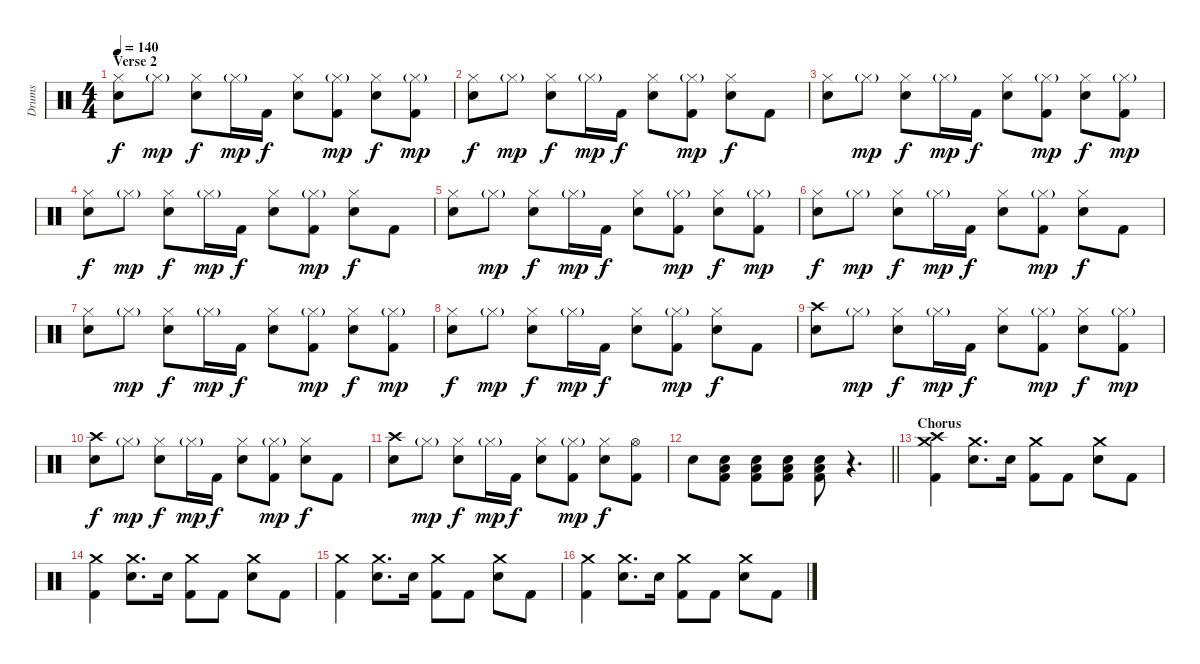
\track ("Drums" "Drums") {instrument percussion}
\staff {score}
\articulation defaults
\ts (4 4)
\section ("" "Verse 2")
\tempo 140
\clef neutral
\ks c
("Hi-Hat (closed)" "Electric Snare (hit)").8{dy f} "Hi-Hat (closed)"{g}.8{dy mp} ("Hi-Hat (closed)" "Electric Snare (hit)").8{dy f} "Hi-Hat (closed)"{g}.16{dy mp} "Kick (hit) 2".16{dy f} ("Hi-Hat (closed)" "Electric Snare (hit)").8 ("Hi-Hat (closed)"{g} "Kick (hit) 2").8{dy mp} ("Hi-Hat (closed)" "Electric Snare (hit)").8{dy f} ("Hi-Hat (closed)"{g} "Kick (hit) 2").8{dy mp} |
("Hi-Hat (closed)" "Electric Snare (hit)").8{dy f} "Hi-Hat (closed)"{g}.8{dy mp} ("Hi-Hat (closed)" "Electric Snare (hit)").8{dy f} "Hi-Hat (closed)"{g}.16{dy mp} "Kick (hit) 2".16{dy f} ("Hi-Hat (closed)" "Electric Snare (hit)").8 ("Hi-Hat (closed)"{g} "Kick (hit) 2").8{dy mp} ("Hi-Hat (closed)" "Electric Snare (hit)").8{dy f} "Kick (hit) 2".8 |
("Hi-Hat (closed)" "Electric Snare (hit)").8 "Hi-Hat (closed)"{g}.8{dy mp} ("Hi-Hat (closed)" "Electric Snare (hit)").8{dy f} "Hi-Hat (closed)"{g}.16{dy mp} "Kick (hit) 2".16{dy f} ("Hi-Hat (closed)" "Electric Snare (hit)").8 ("Hi-Hat (closed)"{g} "Kick (hit) 2").8{dy mp} ("Hi-Hat (closed)" "Electric Snare (hit)").8{dy f} ("Hi-Hat (closed)"{g} "Kick (hit) 2").8{dy mp} |
("Hi-Hat (closed)" "Electric Snare (hit)").8{dy f} "Hi-Hat (closed)"{g}.8{dy mp} ("Hi-Hat (closed)" "Electric Snare (hit)").8{dy f} "Hi-Hat (closed)"{g}.16{dy mp} "Kick (hit) 2".16{dy f} ("Hi-Hat (closed)" "Electric Snare (hit)").8 ("Hi-Hat (closed)"{g} "Kick (hit) 2").8{dy mp} ("Hi-Hat (closed)" "Electric Snare (hit)").8{dy f} "Kick (hit) 2".8 |
("Hi-Hat (closed)" "Electric Snare (hit)").8 "Hi-Hat (closed)"{g}.8{dy mp} ("Hi-Hat (closed)" "Electric Snare (hit)").8{dy f} "Hi-Hat (closed)"{g}.16{dy mp} "Kick (hit) 2".16{dy f} ("Hi-Hat (closed)" "Electric Snare (hit)").8 ("Hi-Hat (closed)"{g} "Kick (hit) 2").8{dy mp} ("Hi-Hat (closed)" "Electric Snare (hit)").8{dy f} ("Hi-Hat (closed)"{g} "Kick (hit) 2").8{dy mp} |
("Hi-Hat (closed)" "Electric Snare (hit)").8{dy f} "Hi-Hat (closed)"{g}.8{dy mp} ("Hi-Hat (closed)" "Electric Snare (hit)").8{dy f} "Hi-Hat (closed)"{g}.16{dy mp} "Kick (hit) 2".16{dy f} ("Hi-Hat (closed)" "Electric Snare (hit)").8 ("Hi-Hat (closed)"{g} "Kick (hit) 2").8{dy mp} ("Hi-Hat (closed)" "Electric Snare (hit)").8{dy f} "Kick (hit) 2".8 |
("Hi-Hat (closed)" "Electric Snare (hit)").8 "Hi-Hat (closed)"{g}.8{dy mp} ("Hi-Hat (closed)" "Electric Snare (hit)").8{dy f} "Hi-Hat (closed)"{g}.16{dy mp} "Kick (hit) 2".16{dy f} ("Hi-Hat (closed)" "Electric Snare (hit)").8 ("Hi-Hat (closed)"{g} "Kick (hit) 2").8{dy mp} ("Hi-Hat (closed)" "Electric Snare (hit)").8{dy f} ("Hi-Hat (closed)"{g} "Kick (hit) 2").8{dy mp} |
("Hi-Hat (closed)" "Electric Snare (hit)").8{dy f} "Hi-Hat (closed)"{g}.8{dy mp} ("Hi-Hat (closed)" "Electric Snare (hit)").8{dy f} "Hi-Hat (closed)"{g}.16{dy mp} "Kick (hit) 2".16{dy f} ("Hi-Hat (closed)" "Electric Snare (hit)").8 ("Hi-Hat (closed)"{g} "Kick (hit) 2").8{dy mp} ("Hi-Hat (closed)" "Electric Snare (hit)").8{dy f} "Kick (hit) 2".8 |
("Crash high (hit)" "Electric Snare (hit)").8 "Hi-Hat (closed)"{g}.8{dy mp} ("Hi-Hat (closed)" "Electric Snare (hit)").8{dy f} "Hi-Hat (closed)"{g}.16{dy mp} "Kick (hit) 2".16{dy f} ("Hi-Hat (closed)" "Electric Snare (hit)").8 ("Hi-Hat (closed)"{g} "Kick (hit) 2").8{dy mp} ("Hi-Hat (closed)" "Electric Snare (hit)").8{dy f} ("Hi-Hat (closed)"{g} "Kick (hit) 2").8{dy mp} |
("Crash high (hit)" "Electric Snare (hit)").8{dy f} "Hi-Hat (closed)"{g}.8{dy mp} ("Hi-Hat (closed)" "Electric Snare (hit)").8{dy f} "Hi-Hat (closed)"{g}.16{dy mp} "Kick (hit) 2".16{dy f} ("Hi-Hat (closed)" "Electric Snare (hit)").8 ("Hi-Hat (closed)"{g} "Kick (hit) 2").8{dy mp} ("Hi-Hat (closed)" "Electric Snare (hit)").8{dy f} "Kick (hit) 2".8 |
("Crash high (hit)" "Electric Snare (hit)").8 "Hi-Hat (closed)"{g}.8{dy mp} ("Hi-Hat (closed)" "Electric Snare (hit)").8{dy f} "Hi-Hat (closed)"{g}.16{dy mp} "Kick (hit) 2".16{dy f} ("Hi-Hat (closed)" "Electric Snare (hit)").8 ("Hi-Hat (closed)"{g} "Kick (hit) 2").8{dy mp} ("Hi-Hat (closed)" "Electric Snare (hit)").8{dy f} ("Hi-Hat (open)" "Kick (hit) 2").8 |
\barLineRight lightlight "Electric Snare (hit)".8
("Electric Snare (hit)" "Low Floor Tom (hit)" "Kick (hit) 2").8 ("Electric Snare (hit)" "Low Floor Tom (hit)" "Kick (hit) 2").8 ("Electric Snare (hit)" "Low Floor Tom (hit)" "Kick (hit) 2").8 ("Electric Snare (hit)" "Low Floor Tom (hit)" "Kick (hit) 2").8 r.4{d} |
\section ("" "Chorus")
("Crash high (hit)" "Crash medium (hit)" "Kick (hit) 2").4 ("Crash medium (hit)" "Electric Snare (hit)").8{d} "Electric Snare (hit)".16 ("Crash medium (hit)" "Kick (hit) 2").8 "Kick (hit) 2".8 ("Crash medium (hit)" "Electric Snare (hit)").8 "Kick (hit) 2".8 |
("Crash medium (hit)" "Kick (hit) 2").4 ("Crash medium (hit)" "Electric Snare (hit)").8{d} "Electric Snare (hit)".16 ("Crash medium (hit)" "Kick (hit) 2").8 "Kick (hit) 2".8 ("Crash medium (hit)" "Electric Snare (hit)").8 "Kick (hit) 2".8 |
("Crash medium (hit)" "Kick (hit) 2").4 ("Crash medium (hit)" "Electric Snare (hit)").8{d} "Electric Snare (hit)".16 ("Crash medium (hit)" "Kick (hit) 2").8 "Kick (hit) 2".8 ("Crash medium (hit)" "Electric Snare (hit)").8 "Kick (hit) 2".8 |
("Crash medium (hit)" "Kick (hit) 2").4 ("Crash medium (hit)" "Electric Snare (hit)").8{d} "Electric Snare (hit)".16 ("Crash medium (hit)" "Kick (hit) 2").8 "Kick (hit) 2".8 ("Crash medium (hit)" "Electric Snare (hit)").8 "Kick (hit) 2".8
